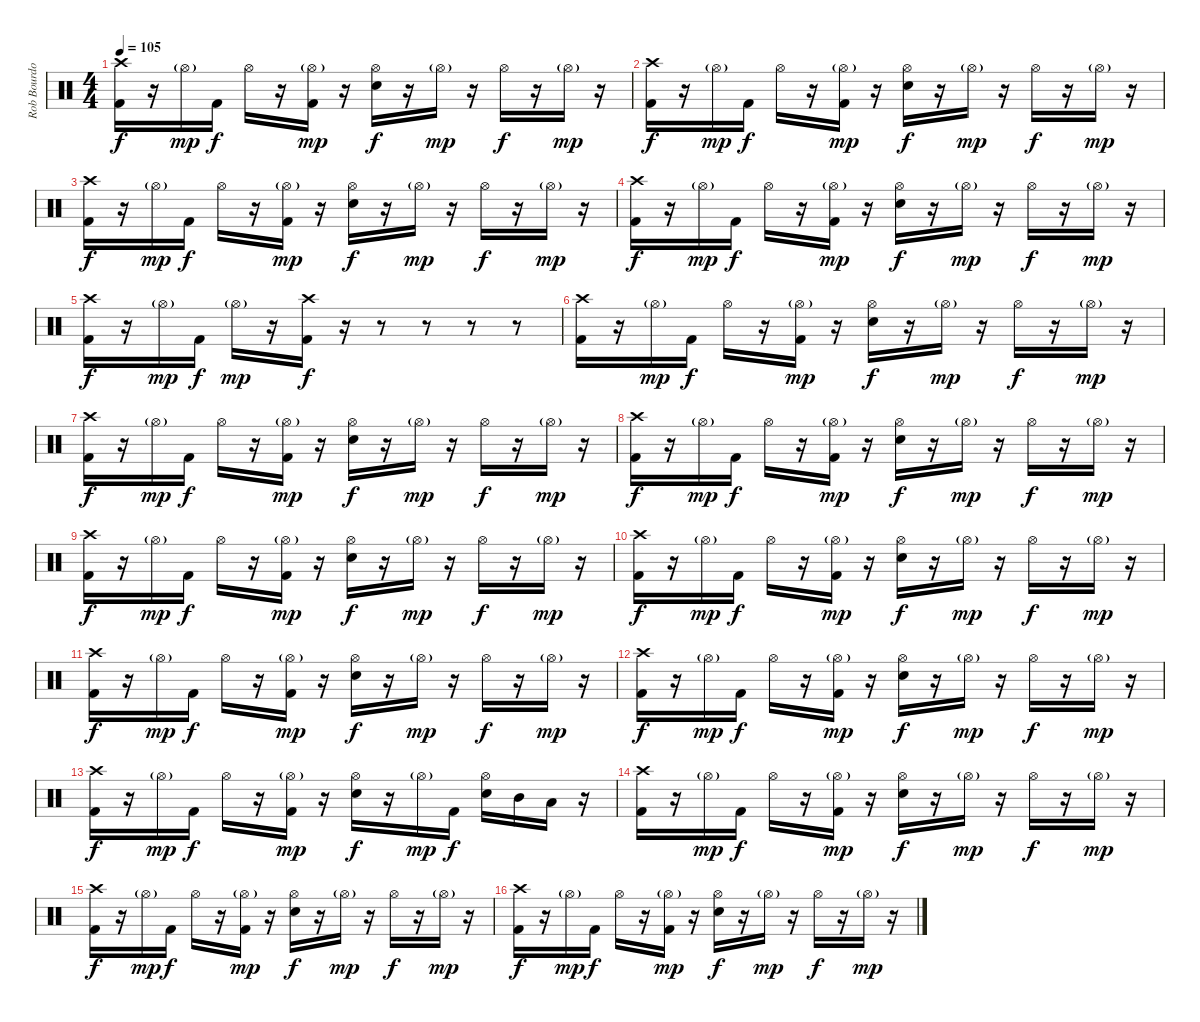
\track ("Rob Bourdon (Drums)" "Rob Bourdo") {instrument percussion}
\staff {score}
\articulation defaults
\ts (4 4)
\tempo 105
\clef neutral
\ks c
("Crash high (hit)" "Kick (hit) 2").16{dy f} r.16 "Hi-Hat (open)"{g}.16{dy mp} "Kick (hit) 2".16{dy f} "Hi-Hat (open)".16 r.16 ("Hi-Hat (open)"{g} "Kick (hit) 2").16{dy mp} r.16 ("Hi-Hat (open)" "Electric Snare (hit)").16{dy f} r.16 "Hi-Hat (open)"{g}.16{dy mp} r.16 "Hi-Hat (open)".16{dy f} r.16 "Hi-Hat (open)"{g}.16{dy mp} r.16 |
("Crash high (hit)" "Kick (hit) 2").16{dy f} r.16 "Hi-Hat (open)"{g}.16{dy mp} "Kick (hit) 2".16{dy f} "Hi-Hat (open)".16 r.16 ("Hi-Hat (open)"{g} "Kick (hit) 2").16{dy mp} r.16 ("Hi-Hat (open)" "Electric Snare (hit)").16{dy f} r.16 "Hi-Hat (open)"{g}.16{dy mp} r.16 "Hi-Hat (open)".16{dy f} r.16 "Hi-Hat (open)"{g}.16{dy mp} r.16 |
("Crash high (hit)" "Kick (hit) 2").16{dy f} r.16 "Hi-Hat (open)"{g}.16{dy mp} "Kick (hit) 2".16{dy f} "Hi-Hat (open)".16 r.16 ("Hi-Hat (open)"{g} "Kick (hit) 2").16{dy mp} r.16 ("Hi-Hat (open)" "Electric Snare (hit)").16{dy f} r.16 "Hi-Hat (open)"{g}.16{dy mp} r.16 "Hi-Hat (open)".16{dy f} r.16 "Hi-Hat (open)"{g}.16{dy mp} r.16 |
("Crash high (hit)" "Kick (hit) 2").16{dy f} r.16 "Hi-Hat (open)"{g}.16{dy mp} "Kick (hit) 2".16{dy f} "Hi-Hat (open)".16 r.16 ("Hi-Hat (open)"{g} "Kick (hit) 2").16{dy mp} r.16 ("Hi-Hat (open)" "Electric Snare (hit)").16{dy f} r.16 "Hi-Hat (open)"{g}.16{dy mp} r.16 "Hi-Hat (open)".16{dy f} r.16 "Hi-Hat (open)"{g}.16{dy mp} r.16 |
("Crash high (hit)" "Kick (hit) 2").16{dy f} r.16 "Hi-Hat (open)"{g}.16{dy mp} "Kick (hit) 2".16{dy f} "Hi-Hat (open)"{g}.16{dy mp} r.16 ("Crash high (hit)" "Kick (hit) 2").16{dy f} r.16 r.8 r.8 r.8 r.8 |
("Crash high (hit)" "Kick (hit) 2").16 r.16 "Hi-Hat (open)"{g}.16{dy mp} "Kick (hit) 2".16{dy f} "Hi-Hat (open)".16 r.16 ("Hi-Hat (open)"{g} "Kick (hit) 2").16{dy mp} r.16 ("Hi-Hat (open)" "Electric Snare (hit)").16{dy f} r.16 "Hi-Hat (open)"{g}.16{dy mp} r.16 "Hi-Hat (open)".16{dy f} r.16 "Hi-Hat (open)"{g}.16{dy mp} r.16 |
("Crash high (hit)" "Kick (hit) 2").16{dy f} r.16 "Hi-Hat (open)"{g}.16{dy mp} "Kick (hit) 2".16{dy f} "Hi-Hat (open)".16 r.16 ("Hi-Hat (open)"{g} "Kick (hit) 2").16{dy mp} r.16 ("Hi-Hat (open)" "Electric Snare (hit)").16{dy f} r.16 "Hi-Hat (open)"{g}.16{dy mp} r.16 "Hi-Hat (open)".16{dy f} r.16 "Hi-Hat (open)"{g}.16{dy mp} r.16 |
("Crash high (hit)" "Kick (hit) 2").16{dy f} r.16 "Hi-Hat (open)"{g}.16{dy mp} "Kick (hit) 2".16{dy f} "Hi-Hat (open)".16 r.16 ("Hi-Hat (open)"{g} "Kick (hit) 2").16{dy mp} r.16 ("Hi-Hat (open)" "Electric Snare (hit)").16{dy f} r.16 "Hi-Hat (open)"{g}.16{dy mp} r.16 "Hi-Hat (open)".16{dy f} r.16 "Hi-Hat (open)"{g}.16{dy mp} r.16 |
("Crash high (hit)" "Kick (hit) 2").16{dy f} r.16 "Hi-Hat (open)"{g}.16{dy mp} "Kick (hit) 2".16{dy f} "Hi-Hat (open)".16 r.16 ("Hi-Hat (open)"{g} "Kick (hit) 2").16{dy mp} r.16 ("Hi-Hat (open)" "Electric Snare (hit)").16{dy f} r.16 "Hi-Hat (open)"{g}.16{dy mp} r.16 "Hi-Hat (open)".16{dy f} r.16 "Hi-Hat (open)"{g}.16{dy mp} r.16 |
("Crash high (hit)" "Kick (hit) 2").16{dy f} r.16 "Hi-Hat (open)"{g}.16{dy mp} "Kick (hit) 2".16{dy f} "Hi-Hat (open)".16 r.16 ("Hi-Hat (open)"{g} "Kick (hit) 2").16{dy mp} r.16 ("Hi-Hat (open)" "Electric Snare (hit)").16{dy f} r.16 "Hi-Hat (open)"{g}.16{dy mp} r.16 "Hi-Hat (open)".16{dy f} r.16 "Hi-Hat (open)"{g}.16{dy mp} r.16 |
("Crash high (hit)" "Kick (hit) 2").16{dy f} r.16 "Hi-Hat (open)"{g}.16{dy mp} "Kick (hit) 2".16{dy f} "Hi-Hat (open)".16 r.16 ("Hi-Hat (open)"{g} "Kick (hit) 2").16{dy mp} r.16 ("Hi-Hat (open)" "Electric Snare (hit)").16{dy f} r.16 "Hi-Hat (open)"{g}.16{dy mp} r.16 "Hi-Hat (open)".16{dy f} r.16 "Hi-Hat (open)"{g}.16{dy mp} r.16 |
("Crash high (hit)" "Kick (hit) 2").16{dy f} r.16 "Hi-Hat (open)"{g}.16{dy mp} "Kick (hit) 2".16{dy f} "Hi-Hat (open)".16 r.16 ("Hi-Hat (open)"{g} "Kick (hit) 2").16{dy mp} r.16 ("Hi-Hat (open)" "Electric Snare (hit)").16{dy f} r.16 "Hi-Hat (open)"{g}.16{dy mp} r.16 "Hi-Hat (open)".16{dy f} r.16 "Hi-Hat (open)"{g}.16{dy mp} r.16 |
("Crash high (hit)" "Kick (hit) 2").16{dy f} r.16 "Hi-Hat (open)"{g}.16{dy mp} "Kick (hit) 2".16{dy f} "Hi-Hat (open)".16 r.16 ("Hi-Hat (open)"{g} "Kick (hit) 2").16{dy mp} r.16 ("Hi-Hat (open)" "Electric Snare (hit)").16{dy f} r.16 "Hi-Hat (open)"{g}.16{dy mp} "Kick (hit) 2".16{dy f} ("Hi-Hat (open)" "Electric Snare (hit)").16 "Mid Tom (hit)".16 "Low Tom (hit)".16 r.16 |
("Crash high (hit)" "Kick (hit) 2").16 r.16 "Hi-Hat (open)"{g}.16{dy mp} "Kick (hit) 2".16{dy f} "Hi-Hat (open)".16 r.16 ("Hi-Hat (open)"{g} "Kick (hit) 2").16{dy mp} r.16 ("Hi-Hat (open)" "Electric Snare (hit)").16{dy f} r.16 "Hi-Hat (open)"{g}.16{dy mp} r.16 "Hi-Hat (open)".16{dy f} r.16 "Hi-Hat (open)"{g}.16{dy mp} r.16 |
("Crash high (hit)" "Kick (hit) 2").16{dy f} r.16 "Hi-Hat (open)"{g}.16{dy mp} "Kick (hit) 2".16{dy f} "Hi-Hat (open)".16 r.16 ("Hi-Hat (open)"{g} "Kick (hit) 2").16{dy mp} r.16 ("Hi-Hat (open)" "Electric Snare (hit)").16{dy f} r.16 "Hi-Hat (open)"{g}.16{dy mp} r.16 "Hi-Hat (open)".16{dy f} r.16 "Hi-Hat (open)"{g}.16{dy mp} r.16 |
("Crash high (hit)" "Kick (hit) 2").16{dy f} r.16 "Hi-Hat (open)"{g}.16{dy mp} "Kick (hit) 2".16{dy f} "Hi-Hat (open)".16 r.16 ("Hi-Hat (open)"{g} "Kick (hit) 2").16{dy mp} r.16 ("Hi-Hat (open)" "Electric Snare (hit)").16{dy f} r.16 "Hi-Hat (open)"{g}.16{dy mp} r.16 "Hi-Hat (open)".16{dy f} r.16 "Hi-Hat (open)"{g}.16{dy mp} r.16
